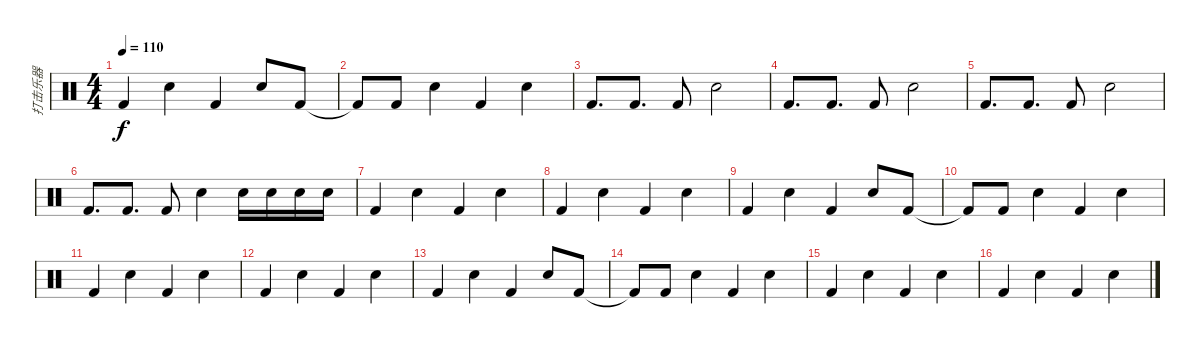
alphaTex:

\track ("打击乐器" "打击乐器") {instrument percussion}
\staff {score}
\articulation defaults
\ts (4 4)
\tempo 110
\clef neutral
\ks c "Kick (hit) 2".4{dy f} "Snare (hit) 2".4 "Kick (hit) 2".4 "Snare (hit) 2".8 "Kick (hit) 2".8
|
"Kick (hit) 2"{t}.8 "Kick (hit) 2".8 "Snare (hit) 2".4 "Kick (hit) 2".4 "Snare (hit) 2".4 |
"Kick (hit) 2".8{d} "Kick (hit) 2".8{d} "Kick (hit) 2".8 "Snare (hit) 2".2 |
"Kick (hit) 2".8{d} "Kick (hit) 2".8{d} "Kick (hit) 2".8 "Snare (hit) 2".2 |
"Kick (hit) 2".8{d} "Kick (hit) 2".8{d} "Kick (hit) 2".8 "Snare (hit) 2".2 |
"Kick (hit) 2".8{d} "Kick (hit) 2".8{d} "Kick (hit) 2".8 "Snare (hit) 2".4 "Snare (hit) 2".16 "Snare (hit) 2".16 "Snare (hit) 2".16 "Snare (hit) 2".16 |
"Kick (hit) 2".4 "Snare (hit) 2".4 "Kick (hit) 2".4 "Snare (hit) 2".4 |
"Kick (hit) 2".4 "Snare (hit) 2".4 "Kick (hit) 2".4 "Snare (hit) 2".4 |
"Kick (hit) 2".4 "Snare (hit) 2".4 "Kick (hit) 2".4 "Snare (hit) 2".8 "Kick (hit) 2".8 |
"Kick (hit) 2"{t}.8 "Kick (hit) 2".8 "Snare (hit) 2".4 "Kick (hit) 2".4 "Snare (hit) 2".4 |
"Kick (hit) 2".4 "Snare (hit) 2".4 "Kick (hit) 2".4 "Snare (hit) 2".4 |
"Kick (hit) 2".4 "Snare (hit) 2".4 "Kick (hit) 2".4 "Snare (hit) 2".4 |
"Kick (hit) 2".4 "Snare (hit) 2".4 "Kick (hit) 2".4 "Snare (hit) 2".8 "Kick (hit) 2".8 |
"Kick (hit) 2"{t}.8 "Kick (hit) 2".8 "Snare (hit) 2".4 "Kick (hit) 2".4 "Snare (hit) 2".4 |
"Kick (hit) 2".4 "Snare (hit) 2".4 "Kick (hit) 2".4 "Snare (hit) 2".4 |
"Kick (hit) 2".4 "Snare (hit) 2".4 "Kick (hit) 2".4 "Snare (hit) 2".4
